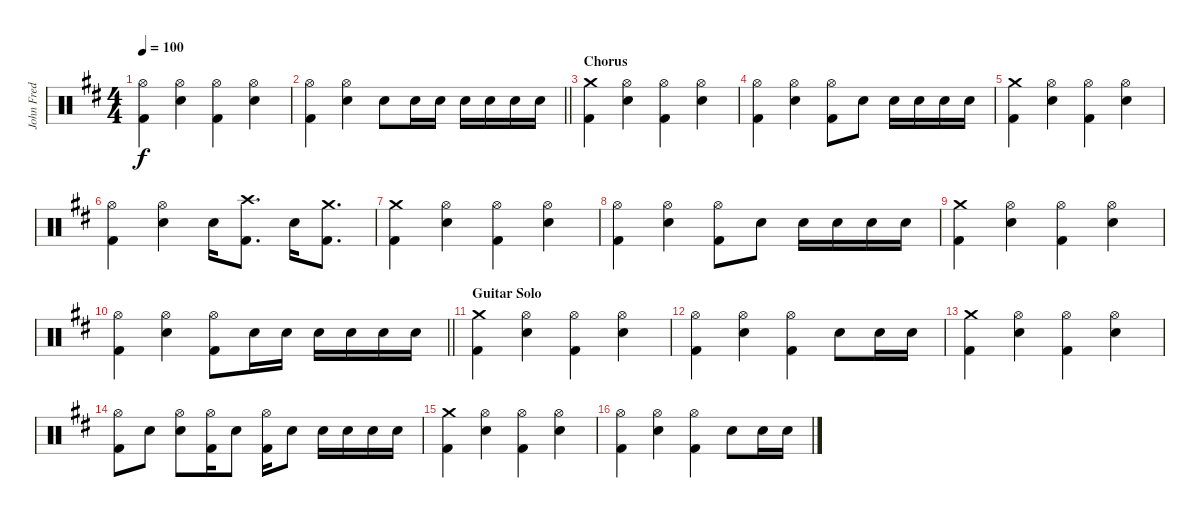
\track ("John Fred Young" "John Fred ") {instrument percussion}
\staff {score}
\articulation defaults
\ts (4 4)
\tempo 100
\clef neutral
\ks bminor
("Hi-Hat (open)" "Kick (hit) 2").4{dy f} ("Hi-Hat (open)" "Snare (hit) 2").4 ("Hi-Hat (open)" "Kick (hit) 2").4 ("Hi-Hat (open)" "Snare (hit) 2").4 |
\barLineRight lightlight
("Hi-Hat (open)" "Kick (hit) 2").4 ("Hi-Hat (open)" "Snare (hit) 2").4 "Snare (hit) 2".8 "Snare (hit) 2".16 "Snare (hit) 2".16 "Snare (hit) 2".16 "Snare (hit) 2".16 "Snare (hit) 2".16 "Snare (hit) 2".16 |
\section ("" "Chorus")
("Crash medium (hit)" "Kick (hit) 2").4 ("Hi-Hat (open)" "Snare (hit) 2").4 ("Hi-Hat (open)" "Kick (hit) 2").4 ("Hi-Hat (open)" "Snare (hit) 2").4 |
("Hi-Hat (open)" "Kick (hit) 2").4 ("Hi-Hat (open)" "Snare (hit) 2").4 ("Hi-Hat (open)" "Kick (hit) 2").8 "Snare (hit) 2".8 "Snare (hit) 2".16 "Snare (hit) 2".16 "Snare (hit) 2".16 "Snare (hit) 2".16 |
("Crash medium (hit)" "Kick (hit) 2").4 ("Hi-Hat (open)" "Snare (hit) 2").4 ("Hi-Hat (open)" "Kick (hit) 2").4 ("Hi-Hat (open)" "Snare (hit) 2").4 |
("Hi-Hat (open)" "Kick (hit) 2").4 ("Hi-Hat (open)" "Snare (hit) 2").4 "Snare (hit) 2".16 ("Crash high (hit)" "Kick (hit) 2").8{d} "Snare (hit) 2".16 ("Crash medium (hit)" "Kick (hit) 2").8{d} |
("Crash medium (hit)" "Kick (hit) 2").4 ("Hi-Hat (open)" "Snare (hit) 2").4 ("Hi-Hat (open)" "Kick (hit) 2").4 ("Hi-Hat (open)" "Snare (hit) 2").4 |
("Hi-Hat (open)" "Kick (hit) 2").4 ("Hi-Hat (open)" "Snare (hit) 2").4 ("Hi-Hat (open)" "Kick (hit) 2").8 "Snare (hit) 2".8 "Snare (hit) 2".16 "Snare (hit) 2".16 "Snare (hit) 2".16 "Snare (hit) 2".16 |
("Crash medium (hit)" "Kick (hit) 2").4 ("Hi-Hat (open)" "Snare (hit) 2").4 ("Hi-Hat (open)" "Kick (hit) 2").4 ("Hi-Hat (open)" "Snare (hit) 2").4 |
\barLineRight lightlight
("Hi-Hat (open)" "Kick (hit) 2").4 ("Hi-Hat (open)" "Snare (hit) 2").4 ("Hi-Hat (open)" "Kick (hit) 2").8 "Snare (hit) 2".16 "Snare (hit) 2".16 "Snare (hit) 2".16 "Snare (hit) 2".16 "Snare (hit) 2".16 "Snare (hit) 2".16 |
\section ("" "Guitar Solo")
("Crash medium (hit)" "Kick (hit) 2").4 ("Hi-Hat (open)" "Snare (hit) 2").4 ("Hi-Hat (open)" "Kick (hit) 2").4 ("Hi-Hat (open)" "Snare (hit) 2").4 |
("Hi-Hat (open)" "Kick (hit) 2").4 ("Hi-Hat (open)" "Snare (hit) 2").4 ("Hi-Hat (open)" "Kick (hit) 2").4 "Snare (hit) 2".8 "Snare (hit) 2".16 "Snare (hit) 2".16 |
("Crash medium (hit)" "Kick (hit) 2").4 ("Hi-Hat (open)" "Snare (hit) 2").4 ("Hi-Hat (open)" "Kick (hit) 2").4 ("Hi-Hat (open)" "Snare (hit) 2").4 |
("Hi-Hat (open)" "Kick (hit) 2").8 "Snare (hit) 2".8 ("Hi-Hat (open)" "Snare (hit) 2").8 ("Hi-Hat (open)" "Kick (hit) 2").16 "Snare (hit) 2".8 ("Hi-Hat (open)" "Kick (hit) 2").16 "Snare (hit) 2".8 "Snare (hit) 2".16 "Snare (hit) 2".16 "Snare (hit) 2".16 "Snare (hit) 2".16 |
("Crash medium (hit)" "Kick (hit) 2").4 ("Hi-Hat (open)" "Snare (hit) 2").4 ("Hi-Hat (open)" "Kick (hit) 2").4 ("Hi-Hat (open)" "Snare (hit) 2").4 |
("Hi-Hat (open)" "Kick (hit) 2").4 ("Hi-Hat (open)" "Snare (hit) 2").4 ("Hi-Hat (open)" "Kick (hit) 2").4 "Snare (hit) 2".8 "Snare (hit) 2".16 "Snare (hit) 2".16
